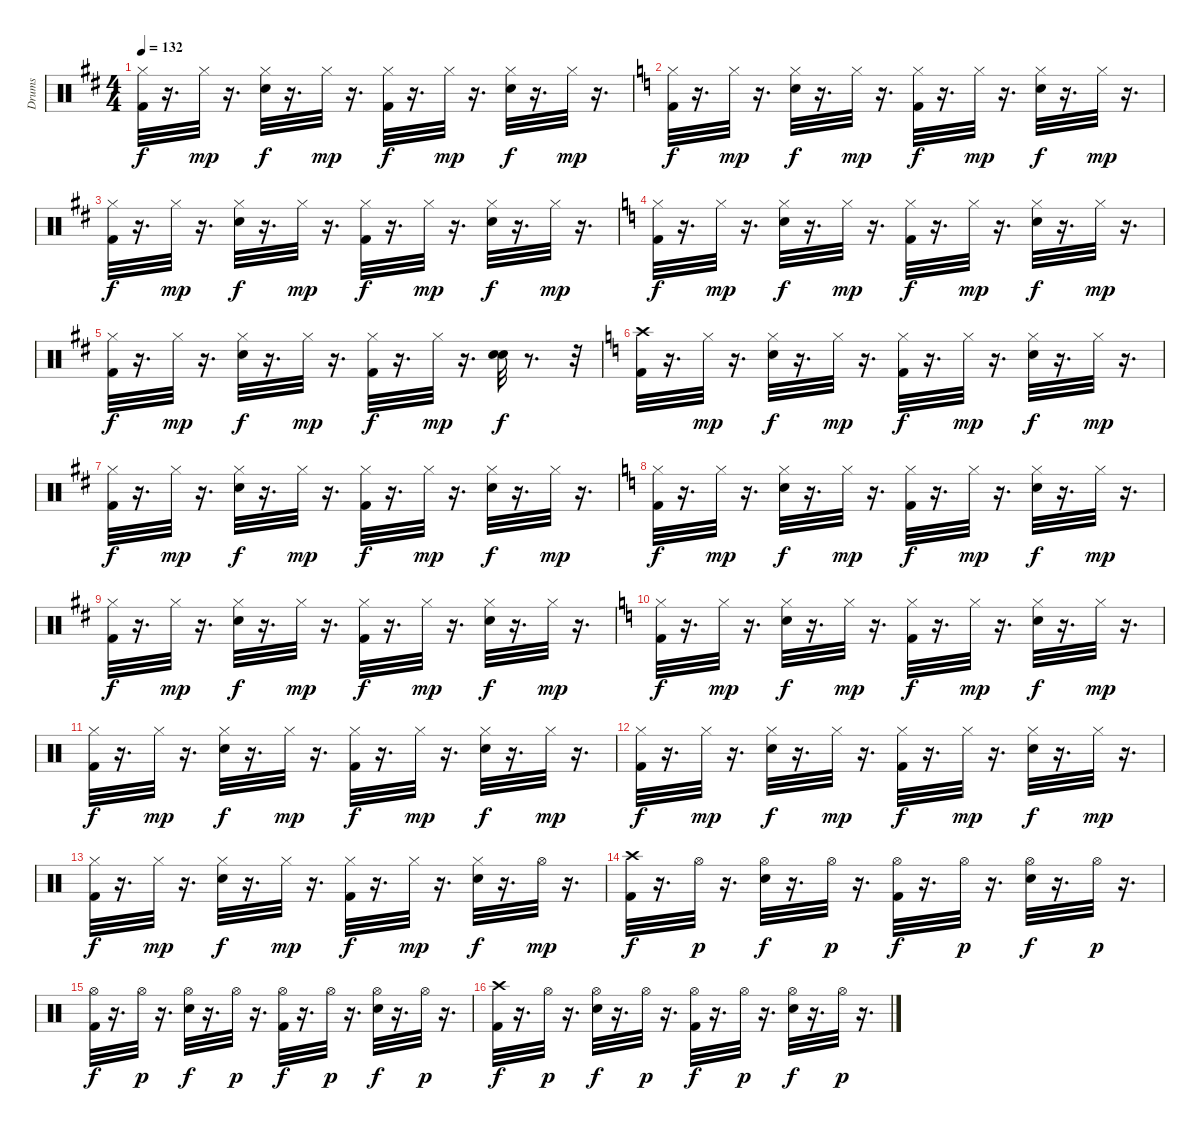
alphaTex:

\track ("Drums" "Drums") {instrument percussion}
\staff {score}
\articulation defaults
\ts (4 4)
\tempo 132
\clef neutral
\ks d
("Hi-Hat (closed)" "Kick (hit) 2").32{dy f} r.16{d} "Hi-Hat (closed)".32{dy mp} r.16{d} ("Hi-Hat (closed)" "Electric Snare (hit)").32{dy f} r.16{d} "Hi-Hat (closed)".32{dy mp} r.16{d} ("Hi-Hat (closed)" "Kick (hit) 2").32{dy f} r.16{d} "Hi-Hat (closed)".32{dy mp} r.16{d} ("Hi-Hat (closed)" "Electric Snare (hit)").32{dy f} r.16{d} "Hi-Hat (closed)".32{dy mp} r.16{d} |
\ks c
("Hi-Hat (closed)" "Kick (hit) 2").32{dy f} r.16{d} "Hi-Hat (closed)".32{dy mp} r.16{d} ("Hi-Hat (closed)" "Electric Snare (hit)").32{dy f} r.16{d} "Hi-Hat (closed)".32{dy mp} r.16{d} ("Hi-Hat (closed)" "Kick (hit) 2").32{dy f} r.16{d} "Hi-Hat (closed)".32{dy mp} r.16{d} ("Hi-Hat (closed)" "Electric Snare (hit)").32{dy f} r.16{d} "Hi-Hat (closed)".32{dy mp} r.16{d} |
\ks d
("Hi-Hat (closed)" "Kick (hit) 2").32{dy f} r.16{d} "Hi-Hat (closed)".32{dy mp} r.16{d} ("Hi-Hat (closed)" "Electric Snare (hit)").32{dy f} r.16{d} "Hi-Hat (closed)".32{dy mp} r.16{d} ("Hi-Hat (closed)" "Kick (hit) 2").32{dy f} r.16{d} "Hi-Hat (closed)".32{dy mp} r.16{d} ("Hi-Hat (closed)" "Electric Snare (hit)").32{dy f} r.16{d} "Hi-Hat (closed)".32{dy mp} r.16{d} |
\ks c
("Hi-Hat (closed)" "Kick (hit) 2").32{dy f} r.16{d} "Hi-Hat (closed)".32{dy mp} r.16{d} ("Hi-Hat (closed)" "Electric Snare (hit)").32{dy f} r.16{d} "Hi-Hat (closed)".32{dy mp} r.16{d} ("Hi-Hat (closed)" "Kick (hit) 2").32{dy f} r.16{d} "Hi-Hat (closed)".32{dy mp} r.16{d} ("Hi-Hat (closed)" "Electric Snare (hit)").32{dy f} r.16{d} "Hi-Hat (closed)".32{dy mp} r.16{d} |
\ks d
("Hi-Hat (closed)" "Kick (hit) 2").32{dy f} r.16{d} "Hi-Hat (closed)".32{dy mp} r.16{d} ("Hi-Hat (closed)" "Electric Snare (hit)").32{dy f} r.16{d} "Hi-Hat (closed)".32{dy mp} r.16{d} ("Hi-Hat (closed)" "Kick (hit) 2").32{dy f} r.16{d} "Hi-Hat (closed)".32{dy mp} r.16{d} ("Electric Snare (hit)" "Snare (hit) 2").32{dy f} r.8{d} r.32 |
\ks c
("Crash high (hit)" "Kick (hit) 2").32 r.16{d} "Hi-Hat (closed)".32{dy mp} r.16{d} ("Hi-Hat (closed)" "Electric Snare (hit)").32{dy f} r.16{d} "Hi-Hat (closed)".32{dy mp} r.16{d} ("Hi-Hat (closed)" "Kick (hit) 2").32{dy f} r.16{d} "Hi-Hat (closed)".32{dy mp} r.16{d} ("Hi-Hat (closed)" "Electric Snare (hit)").32{dy f} r.16{d} "Hi-Hat (closed)".32{dy mp} r.16{d} |
\ks d
("Hi-Hat (closed)" "Kick (hit) 2").32{dy f} r.16{d} "Hi-Hat (closed)".32{dy mp} r.16{d} ("Hi-Hat (closed)" "Electric Snare (hit)").32{dy f} r.16{d} "Hi-Hat (closed)".32{dy mp} r.16{d} ("Hi-Hat (closed)" "Kick (hit) 2").32{dy f} r.16{d} "Hi-Hat (closed)".32{dy mp} r.16{d} ("Hi-Hat (closed)" "Electric Snare (hit)").32{dy f} r.16{d} "Hi-Hat (closed)".32{dy mp} r.16{d} |
\ks c
("Hi-Hat (closed)" "Kick (hit) 2").32{dy f} r.16{d} "Hi-Hat (closed)".32{dy mp} r.16{d} ("Hi-Hat (closed)" "Electric Snare (hit)").32{dy f} r.16{d} "Hi-Hat (closed)".32{dy mp} r.16{d} ("Hi-Hat (closed)" "Kick (hit) 2").32{dy f} r.16{d} "Hi-Hat (closed)".32{dy mp} r.16{d} ("Hi-Hat (closed)" "Electric Snare (hit)").32{dy f} r.16{d} "Hi-Hat (closed)".32{dy mp} r.16{d} |
\ks d
("Hi-Hat (closed)" "Kick (hit) 2").32{dy f} r.16{d} "Hi-Hat (closed)".32{dy mp} r.16{d} ("Hi-Hat (closed)" "Electric Snare (hit)").32{dy f} r.16{d} "Hi-Hat (closed)".32{dy mp} r.16{d} ("Hi-Hat (closed)" "Kick (hit) 2").32{dy f} r.16{d} "Hi-Hat (closed)".32{dy mp} r.16{d} ("Hi-Hat (closed)" "Electric Snare (hit)").32{dy f} r.16{d} "Hi-Hat (closed)".32{dy mp} r.16{d} |
\ks c
("Hi-Hat (closed)" "Kick (hit) 2").32{dy f} r.16{d} "Hi-Hat (closed)".32{dy mp} r.16{d} ("Hi-Hat (closed)" "Electric Snare (hit)").32{dy f} r.16{d} "Hi-Hat (closed)".32{dy mp} r.16{d} ("Hi-Hat (closed)" "Kick (hit) 2").32{dy f} r.16{d} "Hi-Hat (closed)".32{dy mp} r.16{d} ("Hi-Hat (closed)" "Electric Snare (hit)").32{dy f} r.16{d} "Hi-Hat (closed)".32{dy mp} r.16{d} |
("Hi-Hat (closed)" "Kick (hit) 2").32{dy f} r.16{d} "Hi-Hat (closed)".32{dy mp} r.16{d} ("Hi-Hat (closed)" "Electric Snare (hit)").32{dy f} r.16{d} "Hi-Hat (closed)".32{dy mp} r.16{d} ("Hi-Hat (closed)" "Kick (hit) 2").32{dy f} r.16{d} "Hi-Hat (closed)".32{dy mp} r.16{d} ("Hi-Hat (closed)" "Electric Snare (hit)").32{dy f} r.16{d} "Hi-Hat (closed)".32{dy mp} r.16{d} |
("Hi-Hat (closed)" "Kick (hit) 2").32{dy f} r.16{d} "Hi-Hat (closed)".32{dy mp} r.16{d} ("Hi-Hat (closed)" "Electric Snare (hit)").32{dy f} r.16{d} "Hi-Hat (closed)".32{dy mp} r.16{d} ("Hi-Hat (closed)" "Kick (hit) 2").32{dy f} r.16{d} "Hi-Hat (closed)".32{dy mp} r.16{d} ("Hi-Hat (closed)" "Electric Snare (hit)").32{dy f} r.16{d} "Hi-Hat (closed)".32{dy mp} r.16{d} |
("Hi-Hat (closed)" "Kick (hit) 2").32{dy f} r.16{d} "Hi-Hat (closed)".32{dy mp} r.16{d} ("Hi-Hat (closed)" "Electric Snare (hit)").32{dy f} r.16{d} "Hi-Hat (closed)".32{dy mp} r.16{d} ("Kick (hit) 2" "Hi-Hat (closed)").32{dy f} r.16{d} "Hi-Hat (closed)".32{dy mp} r.16{d} ("Hi-Hat (closed)" "Electric Snare (hit)").32{dy f} r.16{d} "Hi-Hat (open)".32{dy mp} r.16{d} |
("Crash high (hit)" "Kick (hit) 2").32{dy f} r.16{d} "Hi-Hat (open)".32{dy p} r.16{d} ("Hi-Hat (open)" "Electric Snare (hit)").32{dy f} r.16{d} "Hi-Hat (open)".32{dy p} r.16{d} ("Hi-Hat (open)" "Kick (hit) 2").32{dy f} r.16{d} "Hi-Hat (open)".32{dy p} r.16{d} ("Hi-Hat (open)" "Electric Snare (hit)").32{dy f} r.16{d} "Hi-Hat (open)".32{dy p} r.16{d} |
("Hi-Hat (open)" "Kick (hit) 2").32{dy f} r.16{d} "Hi-Hat (open)".32{dy p} r.16{d} ("Hi-Hat (open)" "Electric Snare (hit)").32{dy f} r.16{d} "Hi-Hat (open)".32{dy p} r.16{d} ("Hi-Hat (open)" "Kick (hit) 2").32{dy f} r.16{d} "Hi-Hat (open)".32{dy p} r.16{d} ("Hi-Hat (open)" "Electric Snare (hit)").32{dy f} r.16{d} "Hi-Hat (open)".32{dy p} r.16{d} |
("Crash high (hit)" "Kick (hit) 2").32{dy f} r.16{d} "Hi-Hat (open)".32{dy p} r.16{d} ("Hi-Hat (open)" "Electric Snare (hit)").32{dy f} r.16{d} "Hi-Hat (open)".32{dy p} r.16{d} ("Hi-Hat (open)" "Kick (hit) 2").32{dy f} r.16{d} "Hi-Hat (open)".32{dy p} r.16{d} ("Hi-Hat (open)" "Electric Snare (hit)").32{dy f} r.16{d} "Hi-Hat (open)".32{dy p} r.16{d}
